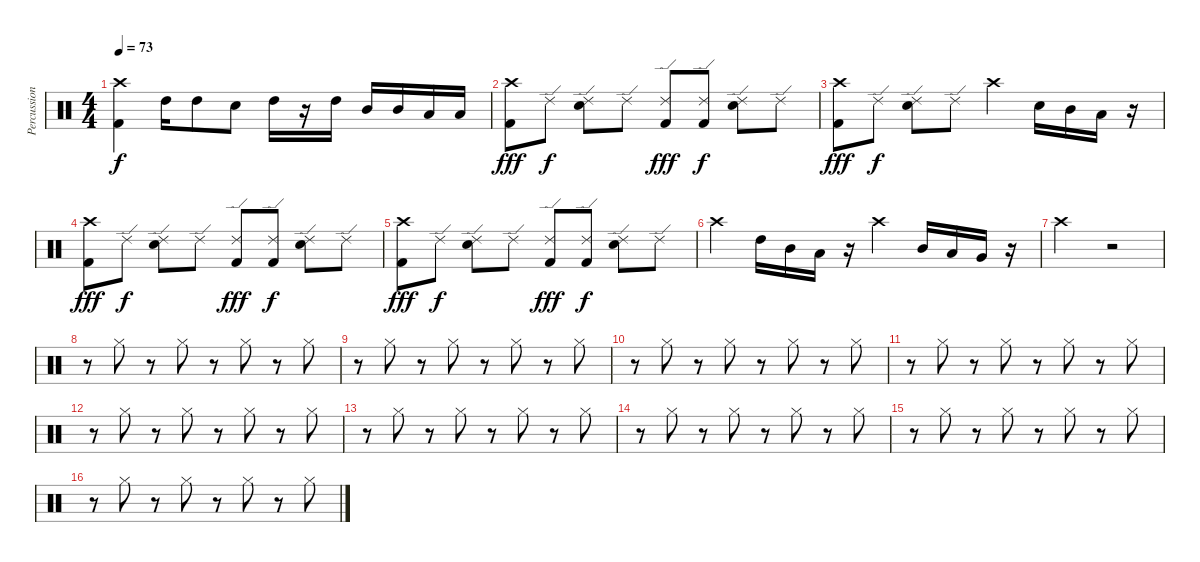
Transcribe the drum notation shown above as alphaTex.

\track ("Percussion" "Percussion") {instrument percussion}
\staff {score}
\articulation defaults
\ts (4 4)
\tempo 73
\clef neutral
\ks c
("Crash high (hit)" "Kick (hit) 2").4{dy f} "High Tom (hit)".16 "High Tom (hit)".8 "Electric Snare (hit)".8 "High Tom (hit)".16 r.16 "High Tom (hit)".16 "Mid Tom (hit)".16 "Mid Tom (hit)".16 "Low Tom (hit)".16 "Low Tom (hit)".16 |
("Crash high (hit)" "Kick (hit) 2").8{dy fff} "Ride (edge) 2".8{dy f} ("Ride (edge) 2" "Electric Snare (hit)").8 "Ride (edge) 2".8 ("Ride (edge) 2" "Kick (hit) 2").8{dy fff} ("Ride (edge) 2" "Kick (hit) 2").8{dy f} ("Ride (edge) 2" "Electric Snare (hit)").8 "Ride (edge) 2".8 |
("Crash high (hit)" "Kick (hit) 2").8{dy fff} "Ride (edge) 2".8{dy f} ("Ride (edge) 2" "Electric Snare (hit)").8 "Ride (edge) 2".8 "Crash high (hit)".4 "Electric Snare (hit)".16 "Mid Tom (hit)".16 "Low Tom (hit)".16 r.16 |
("Crash high (hit)" "Kick (hit) 2").8{dy fff} "Ride (edge) 2".8{dy f} ("Ride (edge) 2" "Electric Snare (hit)").8 "Ride (edge) 2".8 ("Ride (edge) 2" "Kick (hit) 2").8{dy fff} ("Ride (edge) 2" "Kick (hit) 2").8{dy f} ("Ride (edge) 2" "Electric Snare (hit)").8 "Ride (edge) 2".8 |
("Crash high (hit)" "Kick (hit) 2").8{dy fff} "Ride (edge) 2".8{dy f} ("Ride (edge) 2" "Electric Snare (hit)").8 "Ride (edge) 2".8 ("Ride (edge) 2" "Kick (hit) 2").8{dy fff} ("Ride (edge) 2" "Kick (hit) 2").8{dy f} ("Ride (edge) 2" "Electric Snare (hit)").8 "Ride (edge) 2".8 |
"Crash high (hit)".4 "High Tom (hit)".16 "Mid Tom (hit)".16 "Low Tom (hit)".16 r.16 "Crash high (hit)".4 "Mid Tom (hit)".16 "Low Tom (hit)".16 "Very Low Tom (hit)".16 r.16 |
"Crash high (hit)".2 r.2 |
r.8 "Hi-Hat (closed)".8 r.8 "Hi-Hat (closed)".8 r.8 "Hi-Hat (closed)".8 r.8 "Hi-Hat (closed)".8 |
r.8 "Hi-Hat (closed)".8 r.8 "Hi-Hat (closed)".8 r.8 "Hi-Hat (closed)".8 r.8 "Hi-Hat (closed)".8 |
r.8 "Hi-Hat (closed)".8 r.8 "Hi-Hat (closed)".8 r.8 "Hi-Hat (closed)".8 r.8 "Hi-Hat (closed)".8 |
r.8 "Hi-Hat (closed)".8 r.8 "Hi-Hat (closed)".8 r.8 "Hi-Hat (closed)".8 r.8 "Hi-Hat (closed)".8 |
r.8 "Hi-Hat (closed)".8 r.8 "Hi-Hat (closed)".8 r.8 "Hi-Hat (closed)".8 r.8 "Hi-Hat (closed)".8 |
r.8 "Hi-Hat (closed)".8 r.8 "Hi-Hat (closed)".8 r.8 "Hi-Hat (closed)".8 r.8 "Hi-Hat (closed)".8 |
r.8 "Hi-Hat (closed)".8 r.8 "Hi-Hat (closed)".8 r.8 "Hi-Hat (closed)".8 r.8 "Hi-Hat (closed)".8 |
r.8 "Hi-Hat (closed)".8 r.8 "Hi-Hat (closed)".8 r.8 "Hi-Hat (closed)".8 r.8 "Hi-Hat (closed)".8 |
r.8 "Hi-Hat (closed)".8 r.8 "Hi-Hat (closed)".8 r.8 "Hi-Hat (closed)".8 r.8 "Hi-Hat (closed)".8
